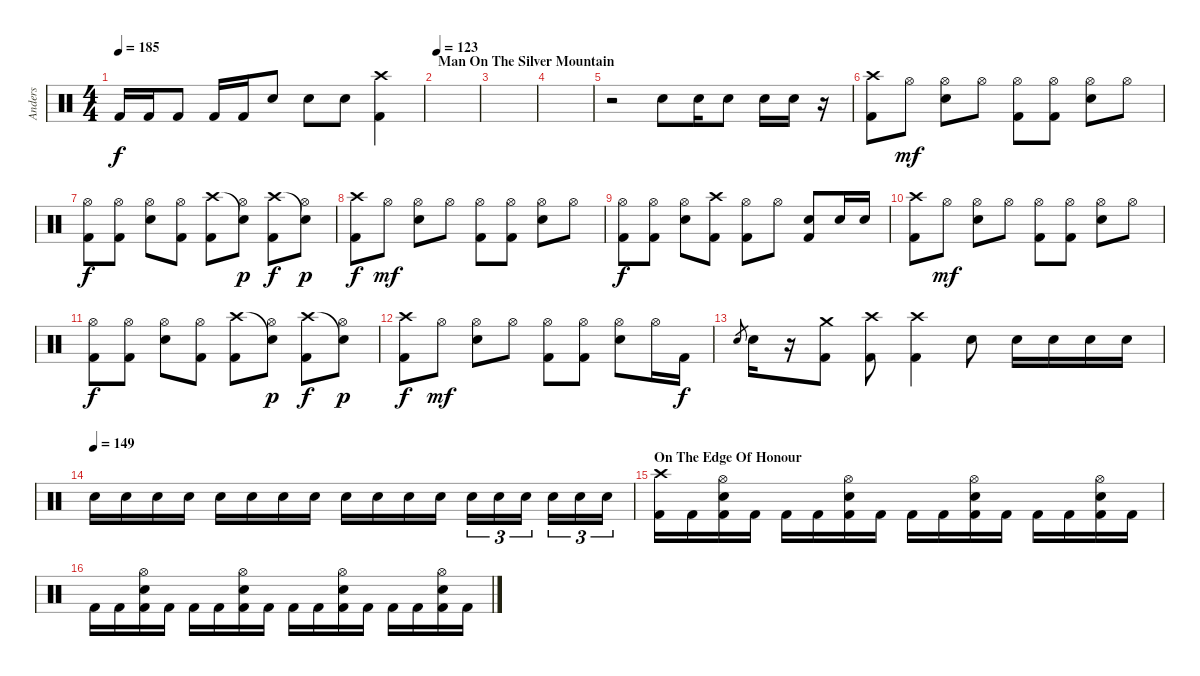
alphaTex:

\track ("Anders" "Anders") {instrument percussion}
\staff {score}
\articulation defaults
\ts (4 4)
\tempo 185
\clef neutral
\ks c "Kick (hit) 2".16{dy f} "Kick (hit) 2".16 "Kick (hit) 2".8 "Kick (hit) 2".16 "Kick (hit) 2".16 "Electric Snare (hit)".8 "Electric Snare (hit)".8 "Electric Snare (hit)".8
("Crash high (hit)" "Kick (hit) 2").4 |
\section ("" "Man On The Silver Mountain")
\tempo 123
|
|
|
r.2 "Electric Snare (hit)".8 "Electric Snare (hit)".16 "Electric Snare (hit)".8 "Electric Snare (hit)".16 "Electric Snare (hit)".16 r.16 |
("Crash high (hit)" "Kick (hit) 2").8 "Hi-Hat (open)".8{dy mf} ("Hi-Hat (open)" "Electric Snare (hit)").8 "Hi-Hat (open)".8 ("Hi-Hat (open)" "Kick (hit) 2").8 ("Hi-Hat (open)" "Kick (hit) 2").8 ("Hi-Hat (open)" "Electric Snare (hit)").8 "Hi-Hat (open)".8 |
("Hi-Hat (open)" "Kick (hit) 2").8{dy f} ("Hi-Hat (open)" "Kick (hit) 2").8 ("Hi-Hat (open)" "Electric Snare (hit)").8 ("Hi-Hat (open)" "Kick (hit) 2").8 ("Crash high (hit)" "Kick (hit) 2").8 ("Snare (hit)"{t} "Hi-Hat (open)").8{dy p} ("Crash high (hit)" "Kick (hit) 2").8{dy f} ("Snare (hit)"{t} "Hi-Hat (open)").8{dy p} |
("Crash high (hit)" "Kick (hit) 2").8{dy f} "Hi-Hat (open)".8{dy mf} ("Hi-Hat (open)" "Electric Snare (hit)").8 "Hi-Hat (open)".8 ("Hi-Hat (open)" "Kick (hit) 2").8 ("Hi-Hat (open)" "Kick (hit) 2").8 ("Hi-Hat (open)" "Electric Snare (hit)").8 "Hi-Hat (open)".8 |
("Hi-Hat (open)" "Kick (hit) 2").8{dy f} ("Hi-Hat (open)" "Kick (hit) 2").8 ("Hi-Hat (open)" "Electric Snare (hit)").8 ("Crash high (hit)" "Kick (hit) 2").8 ("Hi-Hat (open)" "Kick (hit) 2").8 "Hi-Hat (open)".8 ("Electric Snare (hit)" "Kick (hit) 2").8 "Electric Snare (hit)".16 "Electric Snare (hit)".16 |
("Crash high (hit)" "Kick (hit) 2").8 "Hi-Hat (open)".8{dy mf} ("Hi-Hat (open)" "Electric Snare (hit)").8 "Hi-Hat (open)".8 ("Hi-Hat (open)" "Kick (hit) 2").8 ("Hi-Hat (open)" "Kick (hit) 2").8 ("Hi-Hat (open)" "Electric Snare (hit)").8 "Hi-Hat (open)".8 |
("Hi-Hat (open)" "Kick (hit) 2").8{dy f} ("Hi-Hat (open)" "Kick (hit) 2").8 ("Hi-Hat (open)" "Electric Snare (hit)").8 ("Hi-Hat (open)" "Kick (hit) 2").8 ("Crash high (hit)" "Kick (hit) 2").8 ("Snare (hit)"{t} "Hi-Hat (open)").8{dy p} ("Crash high (hit)" "Kick (hit) 2").8{dy f} ("Snare (hit)"{t} "Hi-Hat (open)").8{dy p} |
("Crash high (hit)" "Kick (hit) 2").8{dy f} "Hi-Hat (open)".8{dy mf} ("Hi-Hat (open)" "Electric Snare (hit)").8 "Hi-Hat (open)".8 ("Hi-Hat (open)" "Kick (hit) 2").8 ("Hi-Hat (open)" "Kick (hit) 2").8 ("Hi-Hat (open)" "Electric Snare (hit)").8 "Hi-Hat (open)".16 "Kick (hit) 2".16{dy f} |
"Electric Snare (hit)".8{gr} "Electric Snare (hit)".16 r.16 ("Crash medium (hit)" "Kick (hit) 2").8 ("Crash high (hit)" "Kick (hit) 2").8 ("Crash high (hit)" "Kick (hit) 2").4 "Electric Snare (hit)".8 "Electric Snare (hit)".16 "Electric Snare (hit)".16 "Electric Snare (hit)".16 "Electric Snare (hit)".16 |
\tempo (149)
"Electric Snare (hit)".16 "Electric Snare (hit)".16 "Electric Snare (hit)".16 "Electric Snare (hit)".16 "Electric Snare (hit)".16 "Electric Snare (hit)".16 "Electric Snare (hit)".16 "Electric Snare (hit)".16 "Electric Snare (hit)".16 "Electric Snare (hit)".16 "Electric Snare (hit)".16 "Electric Snare (hit)".16 "Electric Snare (hit)".16{tu (3 2)} "Electric Snare (hit)".16{tu (3 2)} "Electric Snare (hit)".16{tu (3 2)} "Electric Snare (hit)".16{tu (3 2)} "Electric Snare (hit)".16{tu (3 2)} "Electric Snare (hit)".16{tu (3 2)} |
\section ("" "On The Edge Of Honour")
("Crash high (hit)" "Kick (hit) 2").16 "Kick (hit) 2".16 ("Hi-Hat (open)" "Electric Snare (hit)" "Kick (hit) 2").16 "Kick (hit) 2".16 "Kick (hit) 2".16 "Kick (hit) 2".16 ("Hi-Hat (open)" "Electric Snare (hit)" "Kick (hit) 2").16 "Kick (hit) 2".16 "Kick (hit) 2".16 "Kick (hit) 2".16 ("Hi-Hat (open)" "Electric Snare (hit)" "Kick (hit) 2").16 "Kick (hit) 2".16 "Kick (hit) 2".16 "Kick (hit) 2".16 ("Hi-Hat (open)" "Electric Snare (hit)" "Kick (hit) 2").16 "Kick (hit) 2".16 |
"Kick (hit) 2".16 "Kick (hit) 2".16 ("Hi-Hat (open)" "Electric Snare (hit)" "Kick (hit) 2").16 "Kick (hit) 2".16 "Kick (hit) 2".16 "Kick (hit) 2".16 ("Hi-Hat (open)" "Electric Snare (hit)" "Kick (hit) 2").16 "Kick (hit) 2".16 "Kick (hit) 2".16 "Kick (hit) 2".16 ("Hi-Hat (open)" "Electric Snare (hit)" "Kick (hit) 2").16 "Kick (hit) 2".16 "Kick (hit) 2".16 "Kick (hit) 2".16 ("Hi-Hat (open)" "Electric Snare (hit)" "Kick (hit) 2").16 "Kick (hit) 2".16
